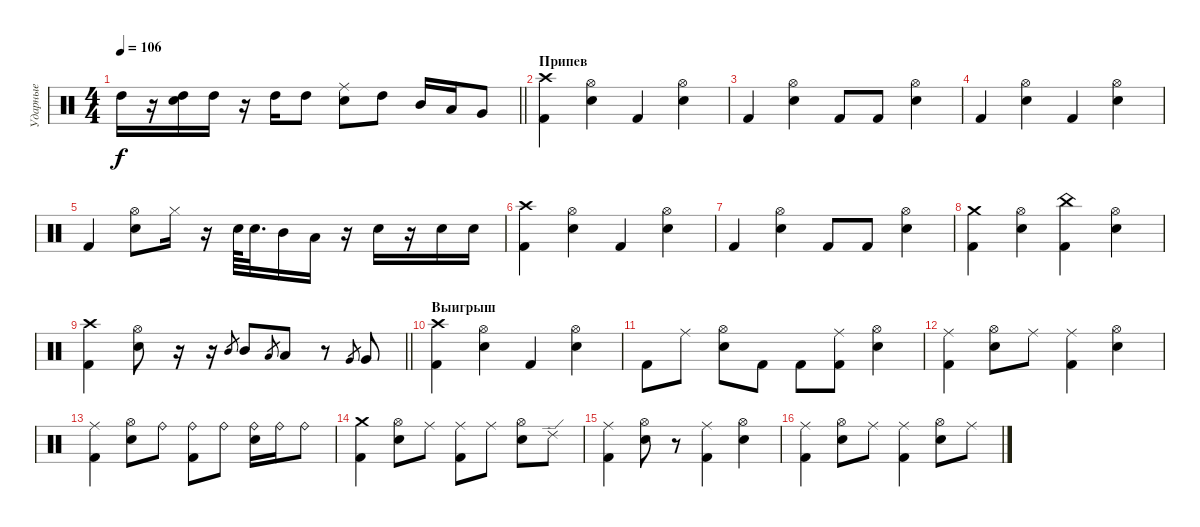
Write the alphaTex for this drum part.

\track ("Ударные" "Ударные") {instrument percussion}
\staff {score}
\articulation defaults
\ts (4 4)
\tempo 106
\clef neutral
\barLineRight lightlight
\ks c "High Tom (hit)".16{dy f}
r.16 ("High Tom (hit)" "Electric Snare (hit)").16 "High Tom (hit)".16 r.16 "High Tom (hit)".16 "High Tom (hit)".8 ("Electric Snare (hit)" "Ride (middle)").8 "High Tom (hit)".8 "Mid Tom (hit)".16 "Low Tom (hit)".16 "Very Low Tom (hit)".8 |
\section ("" "Припев")
("Crash high (hit)" "Kick (hit) 2").4 ("Electric Snare (hit)" "Hi-Hat (open)").4 "Kick (hit) 2".4 ("Electric Snare (hit)" "Hi-Hat (open)").4 |
"Kick (hit) 2".4 ("Electric Snare (hit)" "Hi-Hat (open)").4 "Kick (hit) 2".8 "Kick (hit) 2".8 ("Electric Snare (hit)" "Hi-Hat (open)").4 |
"Kick (hit) 2".4 ("Electric Snare (hit)" "Hi-Hat (open)").4 "Kick (hit) 2".4 ("Electric Snare (hit)" "Hi-Hat (open)").4 |
"Kick (hit) 2".4 ("Electric Snare (hit)" "Hi-Hat (open)").8 "Hi-Hat (closed)".16 r.16 "Electric Snare (hit)".64 "Electric Snare (hit)".32{d} "Mid Tom (hit)".16 "Low Tom (hit)".16 r.16 "Electric Snare (hit)".16 r.16 "Electric Snare (hit)".16 "Electric Snare (hit)".16 |
("Crash high (hit)" "Kick (hit) 2").4 ("Electric Snare (hit)" "Hi-Hat (open)").4 "Kick (hit) 2".4 ("Electric Snare (hit)" "Hi-Hat (open)").4 |
"Kick (hit) 2".4 ("Electric Snare (hit)" "Hi-Hat (open)").4 "Kick (hit) 2".8 "Kick (hit) 2".8 ("Electric Snare (hit)" "Hi-Hat (open)").4 |
("Crash medium (hit)" "Kick (hit) 2").4 ("Electric Snare (hit)" "Hi-Hat (open)").4 ("Kick (hit) 2" "China (hit)").4 ("Electric Snare (hit)" "Hi-Hat (open)").4 |
\barLineRight lightlight
("Crash high (hit)" "Kick (hit) 2").4 ("Electric Snare (hit)" "Hi-Hat (open)").8 r.16 r.16 "Mid Tom (hit)".8{gr} "Mid Tom (hit)".8 "Low Tom (hit)".8{gr} "Low Tom (hit)".8 r.8 "Very Low Tom (hit)".8{gr} "Very Low Tom (hit)".8 |
\section ("" "Выигрыш")
("Crash high (hit)" "Kick (hit) 2").4 ("Electric Snare (hit)" "Hi-Hat (open)").4 "Kick (hit) 2".4 ("Electric Snare (hit)" "Hi-Hat (open)").4 |
"Kick (hit) 2".8 "Ride (middle)".8 ("Electric Snare (hit)" "Hi-Hat (open)").8 "Kick (hit) 2".8 "Kick (hit) 2".8 ("Kick (hit) 2" "Ride (middle)").8 ("Electric Snare (hit)" "Hi-Hat (open)").4 |
("Ride (middle)" "Kick (hit) 2").4 ("Electric Snare (hit)" "Hi-Hat (open)").8 "Ride (middle)".8 ("Kick (hit) 2" "Ride (middle)").4 ("Electric Snare (hit)" "Hi-Hat (open)").4 |
("Kick (hit) 2" "Ride (middle)").4 ("Electric Snare (hit)" "Hi-Hat (open)").8 "Ride (bell)".8 ("Ride (bell)" "Kick (hit) 2").8 "Ride (bell)".8 ("Ride (bell)" "Electric Snare (hit)").16 "Ride (bell)".16 "Ride (bell)".8 |
("Crash medium (hit)" "Kick (hit) 2").4 ("Electric Snare (hit)" "Hi-Hat (open)").8 "Ride (middle)".8 ("Kick (hit) 2" "Ride (middle)").8 "Ride (middle)".8 ("Electric Snare (hit)" "Hi-Hat (open)").8 "Ride (edge) 2".8 |
("Ride (middle)" "Kick (hit) 2").4 ("Electric Snare (hit)" "Hi-Hat (open)").8 r.8 ("Kick (hit) 2" "Ride (middle)").4 ("Electric Snare (hit)" "Hi-Hat (open)").4 |
("Ride (middle)" "Kick (hit) 2").4 ("Electric Snare (hit)" "Hi-Hat (open)").8 "Ride (middle)".8 ("Kick (hit) 2" "Ride (middle)").4 ("Electric Snare (hit)" "Hi-Hat (open)").8 "Ride (middle)".8
